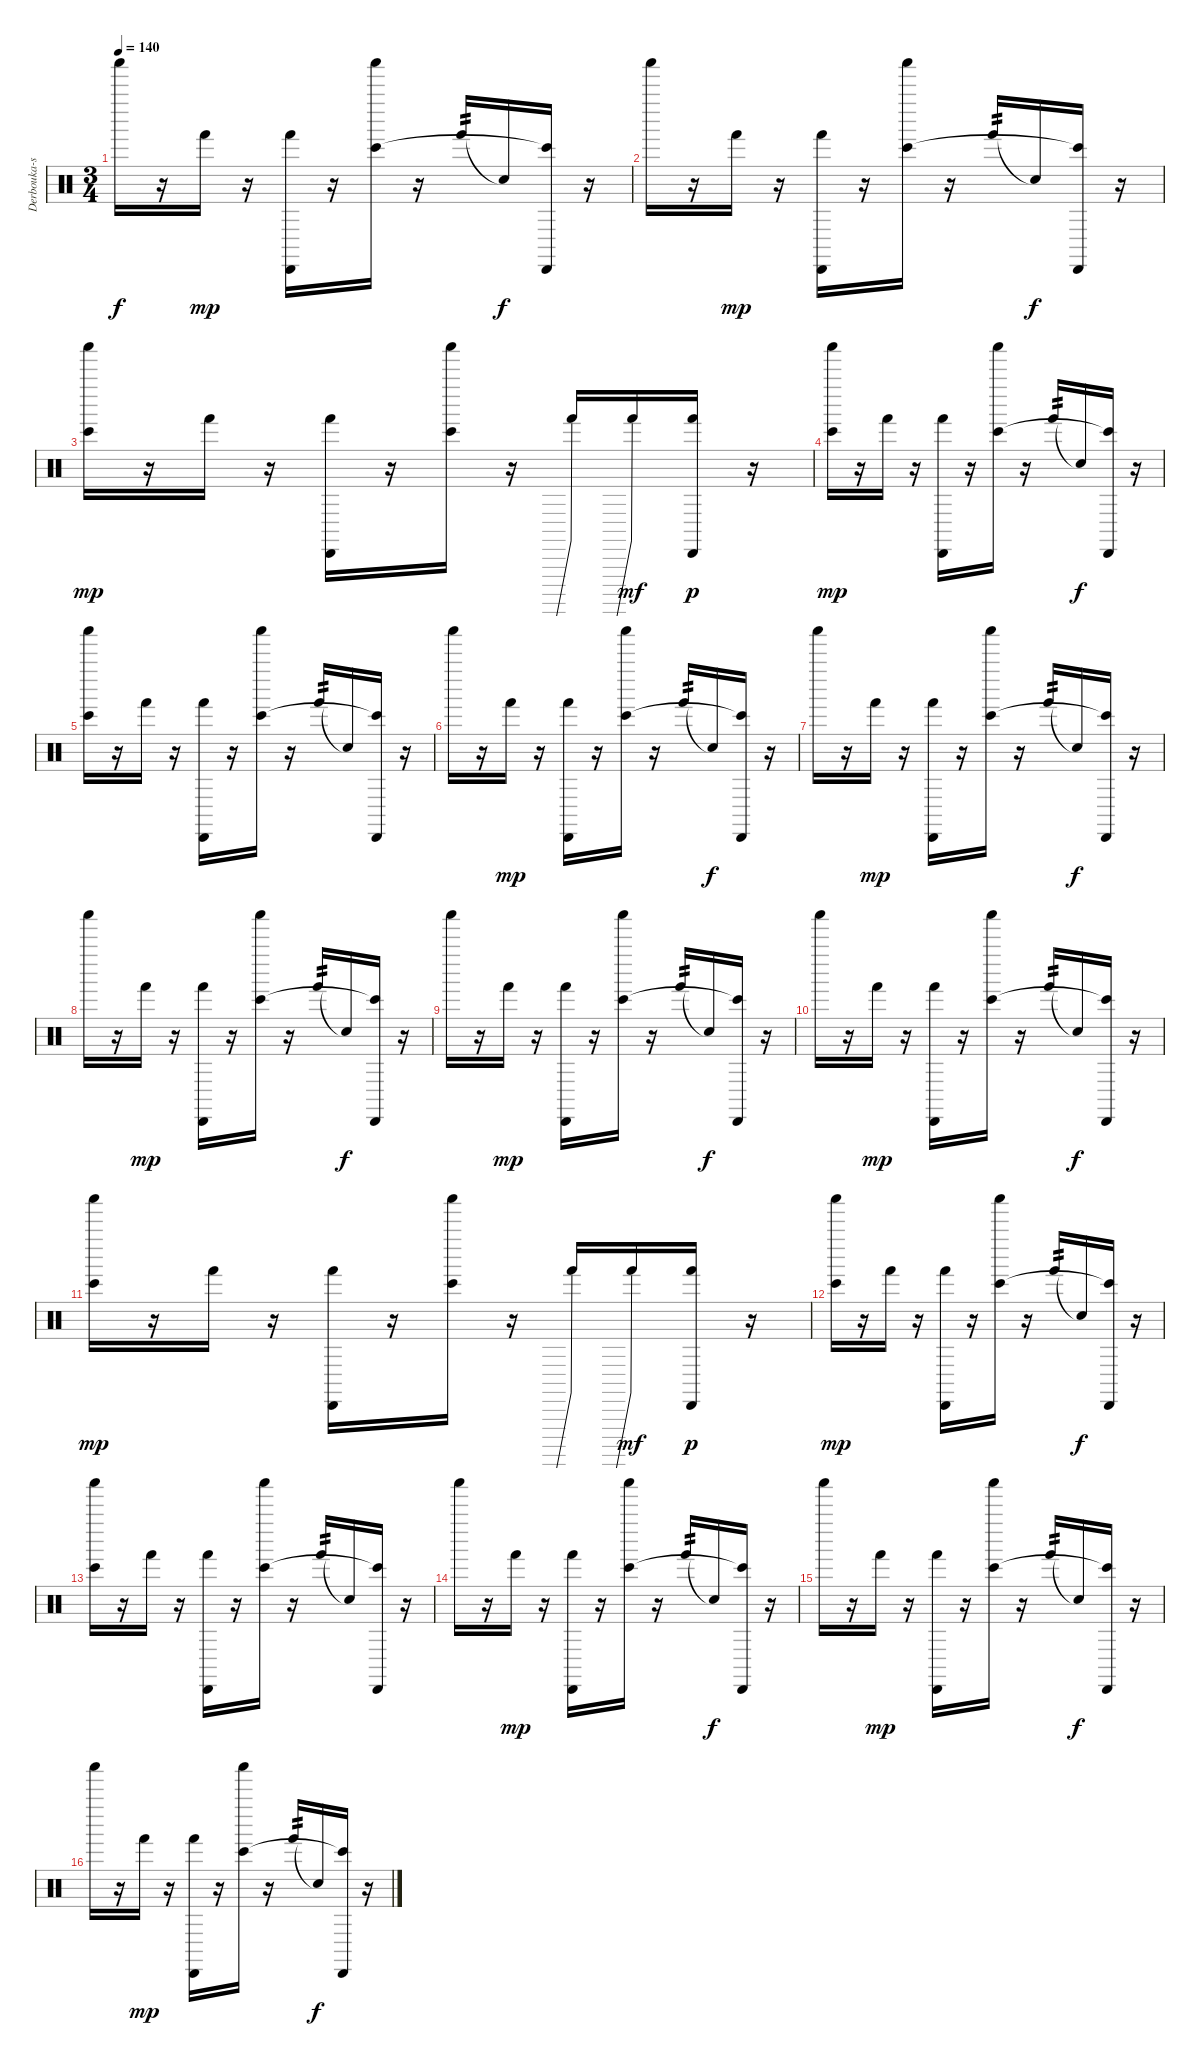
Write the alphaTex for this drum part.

\track ("Derbouka-shaker" "Derbouka-s") {instrument percussion}
\staff {score}
\articulation defaults
\ts (3 4)
\tempo 140
\clef neutral
\ks c "Shaker (hit)".16{dy f}
r.16 "Hand (hit)".16{dy mp} r.16 ("Cabasa (hit)" "Hand (hit)").16 r.16 ("Shaker (hit)" "Bongo High (hit)").16 r.16 "Hand (hit)".16{tp 2} "Snare (hit)"{t}.16{dy f} ("Cabasa (hit)" "Bongo High (hit)"{t}).16 r.16 |
"Shaker (hit)".16 r.16 "Hand (hit)".16{dy mp} r.16 ("Cabasa (hit)" "Hand (hit)").16 r.16 ("Shaker (hit)" "Bongo High (hit)").16 r.16 "Hand (hit)".16{tp 2} "Snare (hit)"{t}.16{dy f} ("Cabasa (hit)" "Bongo High (hit)"{t}).16 r.16 |
("Shaker (hit)" "Bongo High (hit)").16{dy mp} r.16 "Hand (hit)".16 r.16 ("Cabasa (hit)" "Hand (hit)").16 r.16 ("Shaker (hit)" "Bongo High (hit)").16 r.16 "Hand (hit)"{be (prebend 0 2 60 2)}.16 "Hand (hit)"{be (prebend 0 2 60 2)}.16{dy mf} ("Cabasa (hit)" "Hand (hit)").16{dy p} r.16 |
("Shaker (hit)" "Bongo High (hit)").16{dy mp} r.16 "Hand (hit)".16 r.16 ("Cabasa (hit)" "Hand (hit)").16 r.16 ("Shaker (hit)" "Bongo High (hit)").16 r.16 "Hand (hit)".16{tp 2} "Snare (hit)"{t}.16{dy f} ("Cabasa (hit)" "Bongo High (hit)"{t}).16 r.16 |
("Shaker (hit)" "Bongo High (hit)").16 r.16 "Hand (hit)".16 r.16 ("Cabasa (hit)" "Hand (hit)").16 r.16 ("Shaker (hit)" "Bongo High (hit)").16 r.16 "Hand (hit)".16{tp 2} "Snare (hit)"{t}.16 ("Cabasa (hit)" "Bongo High (hit)"{t}).16 r.16 |
"Shaker (hit)".16 r.16 "Hand (hit)".16{dy mp} r.16 ("Cabasa (hit)" "Hand (hit)").16 r.16 ("Shaker (hit)" "Bongo High (hit)").16 r.16 "Hand (hit)".16{tp 2} "Snare (hit)"{t}.16{dy f} ("Cabasa (hit)" "Bongo High (hit)"{t}).16 r.16 |
"Shaker (hit)".16 r.16 "Hand (hit)".16{dy mp} r.16 ("Cabasa (hit)" "Hand (hit)").16 r.16 ("Shaker (hit)" "Bongo High (hit)").16 r.16 "Hand (hit)".16{tp 2} "Snare (hit)"{t}.16{dy f} ("Cabasa (hit)" "Bongo High (hit)"{t}).16 r.16 |
"Shaker (hit)".16 r.16 "Hand (hit)".16{dy mp} r.16 ("Cabasa (hit)" "Hand (hit)").16 r.16 ("Shaker (hit)" "Bongo High (hit)").16 r.16 "Hand (hit)".16{tp 2} "Snare (hit)"{t}.16{dy f} ("Cabasa (hit)" "Bongo High (hit)"{t}).16 r.16 |
"Shaker (hit)".16 r.16 "Hand (hit)".16{dy mp} r.16 ("Cabasa (hit)" "Hand (hit)").16 r.16 ("Shaker (hit)" "Bongo High (hit)").16 r.16 "Hand (hit)".16{tp 2} "Snare (hit)"{t}.16{dy f} ("Cabasa (hit)" "Bongo High (hit)"{t}).16 r.16 |
"Shaker (hit)".16 r.16 "Hand (hit)".16{dy mp} r.16 ("Cabasa (hit)" "Hand (hit)").16 r.16 ("Shaker (hit)" "Bongo High (hit)").16 r.16 "Hand (hit)".16{tp 2} "Snare (hit)"{t}.16{dy f} ("Cabasa (hit)" "Bongo High (hit)"{t}).16 r.16 |
("Shaker (hit)" "Bongo High (hit)").16{dy mp} r.16 "Hand (hit)".16 r.16 ("Cabasa (hit)" "Hand (hit)").16 r.16 ("Shaker (hit)" "Bongo High (hit)").16 r.16 "Hand (hit)"{be (prebend 0 2 60 2)}.16 "Hand (hit)"{be (prebend 0 2 60 2)}.16{dy mf} ("Cabasa (hit)" "Hand (hit)").16{dy p} r.16 |
("Shaker (hit)" "Bongo High (hit)").16{dy mp} r.16 "Hand (hit)".16 r.16 ("Cabasa (hit)" "Hand (hit)").16 r.16 ("Shaker (hit)" "Bongo High (hit)").16 r.16 "Hand (hit)".16{tp 2} "Snare (hit)"{t}.16{dy f} ("Cabasa (hit)" "Bongo High (hit)"{t}).16 r.16 |
("Shaker (hit)" "Bongo High (hit)").16 r.16 "Hand (hit)".16 r.16 ("Cabasa (hit)" "Hand (hit)").16 r.16 ("Shaker (hit)" "Bongo High (hit)").16 r.16 "Hand (hit)".16{tp 2} "Snare (hit)"{t}.16 ("Cabasa (hit)" "Bongo High (hit)"{t}).16 r.16 |
"Shaker (hit)".16 r.16 "Hand (hit)".16{dy mp} r.16 ("Cabasa (hit)" "Hand (hit)").16 r.16 ("Shaker (hit)" "Bongo High (hit)").16 r.16 "Hand (hit)".16{tp 2} "Snare (hit)"{t}.16{dy f} ("Cabasa (hit)" "Bongo High (hit)"{t}).16 r.16 |
"Shaker (hit)".16 r.16 "Hand (hit)".16{dy mp} r.16 ("Cabasa (hit)" "Hand (hit)").16 r.16 ("Shaker (hit)" "Bongo High (hit)").16 r.16 "Hand (hit)".16{tp 2} "Snare (hit)"{t}.16{dy f} ("Cabasa (hit)" "Bongo High (hit)"{t}).16 r.16 |
"Shaker (hit)".16 r.16 "Hand (hit)".16{dy mp} r.16 ("Cabasa (hit)" "Hand (hit)").16 r.16 ("Shaker (hit)" "Bongo High (hit)").16 r.16 "Hand (hit)".16{tp 2} "Snare (hit)"{t}.16{dy f} ("Cabasa (hit)" "Bongo High (hit)"{t}).16 r.16
